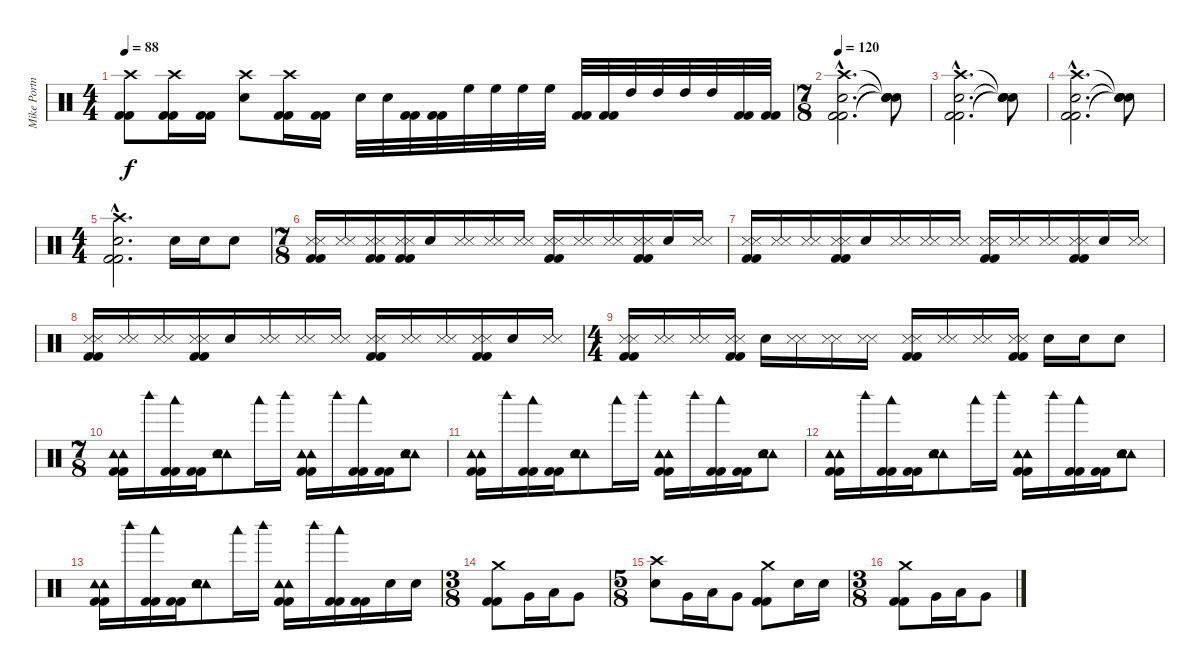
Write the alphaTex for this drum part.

\track ("Mike Portnoy" "Mike Portn") {instrument percussion}
\staff {score}
\articulation defaults
\ts (4 4)
\tempo 88
\clef neutral
\ks c
("Crash high (hit)" "Kick (hit) 2" "Kick (hit) 2").8{dy f} ("Crash high (hit)" "Kick (hit) 2" "Kick (hit) 2").16 ("Kick (hit) 2" "Kick (hit) 2").16 ("Crash high (hit)" "Snare (hit) 2").8 ("Crash high (hit)" "Kick (hit) 2" "Kick (hit) 2").16 ("Kick (hit) 2" "Kick (hit) 2").16 "Snare (hit) 2".32 "Snare (hit) 2".32 ("Kick (hit) 2" "Kick (hit) 2").32 ("Kick (hit) 2" "Kick (hit) 2").32 "High Floor Tom (hit)".32 "High Floor Tom (hit)".32 "High Floor Tom (hit)".32 "High Floor Tom (hit)".32 ("Kick (hit) 2" "Kick (hit) 2").32 ("Kick (hit) 2" "Kick (hit) 2").32 "High Tom (hit)".32 "High Tom (hit)".32 "High Tom (hit)".32 "High Tom (hit)".32 ("Kick (hit) 2" "Kick (hit) 2").32 ("Kick (hit) 2" "Kick (hit) 2").32 |
\ts (7 8)
\tempo 120
("Crash high (hit)"{hac} "Snare (hit) 2"{hac} "Kick (hit) 2"{hac} "Kick (hit) 2"{hac}).2{d} ("Snare (hit)"{t} "Snare (hit)"{t} "Snare (hit)"{t} "Snare (hit)"{t}).8 |
("Crash high (hit)"{hac} "Snare (hit) 2"{hac} "Kick (hit) 2"{hac} "Kick (hit) 2"{hac}).2{d} ("Snare (hit)"{t} "Snare (hit)"{t} "Snare (hit)"{t} "Snare (hit)"{t}).8 |
("Crash high (hit)"{hac} "Snare (hit) 2"{hac} "Kick (hit) 2"{hac} "Kick (hit) 2"{hac}).2{d} ("Snare (hit)"{t} "Snare (hit)"{t} "Snare (hit)"{t} "Snare (hit)"{t}).8 |
\ts (4 4)
("Crash high (hit)"{hac} "Snare (hit) 2"{hac} "Kick (hit) 2"{hac} "Kick (hit) 2"{hac}).2{d} "Snare (hit) 2".16 "Snare (hit) 2".16 "Snare (hit) 2".8 |
\ts (7 8)
("Snare (side stick) 3" "Snare (side stick) 3" "Kick (hit) 2" "Kick (hit) 2").16 ("Snare (side stick) 3" "Snare (side stick) 3").16 ("Snare (side stick) 3" "Snare (side stick) 3" "Kick (hit) 2" "Kick (hit) 2").16 ("Snare (side stick) 3" "Snare (side stick) 3" "Kick (hit) 2" "Kick (hit) 2").16 "Snare (hit) 2".16 ("Snare (side stick) 3" "Snare (side stick) 3").16 ("Snare (side stick) 3" "Snare (side stick) 3").16 ("Snare (side stick) 3" "Snare (side stick) 3").16 ("Snare (side stick) 3" "Snare (side stick) 3" "Kick (hit) 2" "Kick (hit) 2").16 ("Snare (side stick) 3" "Snare (side stick) 3").16 ("Snare (side stick) 3" "Snare (side stick) 3").16 ("Snare (side stick) 3" "Snare (side stick) 3" "Kick (hit) 2" "Kick (hit) 2").16 "Snare (hit) 2".16 ("Snare (side stick) 3" "Snare (side stick) 3").16 |
("Snare (side stick) 3" "Snare (side stick) 3" "Kick (hit) 2" "Kick (hit) 2").16 ("Snare (side stick) 3" "Snare (side stick) 3").16 ("Snare (side stick) 3" "Snare (side stick) 3").16 ("Snare (side stick) 3" "Snare (side stick) 3" "Kick (hit) 2" "Kick (hit) 2").16 "Snare (hit) 2".16 ("Snare (side stick) 3" "Snare (side stick) 3").16 ("Snare (side stick) 3" "Snare (side stick) 3").16 ("Snare (side stick) 3" "Snare (side stick) 3").16 ("Snare (side stick) 3" "Snare (side stick) 3" "Kick (hit) 2" "Kick (hit) 2").16 ("Snare (side stick) 3" "Snare (side stick) 3").16 ("Snare (side stick) 3" "Snare (side stick) 3").16 ("Snare (side stick) 3" "Snare (side stick) 3" "Kick (hit) 2" "Kick (hit) 2").16 "Snare (hit) 2".16 ("Snare (side stick) 3" "Snare (side stick) 3").16 |
("Snare (side stick) 3" "Snare (side stick) 3" "Kick (hit) 2" "Kick (hit) 2").16 ("Snare (side stick) 3" "Snare (side stick) 3").16 ("Snare (side stick) 3" "Snare (side stick) 3").16 ("Snare (side stick) 3" "Snare (side stick) 3" "Kick (hit) 2" "Kick (hit) 2").16 "Snare (hit) 2".16 ("Snare (side stick) 3" "Snare (side stick) 3").16 ("Snare (side stick) 3" "Snare (side stick) 3").16 ("Snare (side stick) 3" "Snare (side stick) 3").16 ("Snare (side stick) 3" "Snare (side stick) 3" "Kick (hit) 2" "Kick (hit) 2").16 ("Snare (side stick) 3" "Snare (side stick) 3").16 ("Snare (side stick) 3" "Snare (side stick) 3").16 ("Snare (side stick) 3" "Snare (side stick) 3" "Kick (hit) 2" "Kick (hit) 2").16 "Snare (hit) 2".16 ("Snare (side stick) 3" "Snare (side stick) 3").16 |
\ts (4 4)
("Snare (side stick) 3" "Snare (side stick) 3" "Kick (hit) 2" "Kick (hit) 2").16 ("Snare (side stick) 3" "Snare (side stick) 3").16 ("Snare (side stick) 3" "Snare (side stick) 3").16 ("Snare (side stick) 3" "Snare (side stick) 3" "Kick (hit) 2" "Kick (hit) 2").16 "Snare (hit) 2".16 ("Snare (side stick) 3" "Snare (side stick) 3").16 ("Snare (side stick) 3" "Snare (side stick) 3").16 ("Snare (side stick) 3" "Snare (side stick) 3").16 ("Snare (side stick) 3" "Snare (side stick) 3" "Kick (hit) 2" "Kick (hit) 2").16 ("Snare (side stick) 3" "Snare (side stick) 3").16 ("Snare (side stick) 3" "Snare (side stick) 3").16 ("Snare (side stick) 3" "Snare (side stick) 3" "Kick (hit) 2" "Kick (hit) 2").16 "Snare (hit) 2".16 "Snare (hit) 2".16 "Snare (hit) 2".8 |
\ts (7 8)
("Tambourine (hit)" "Tambourine (hit)" "Kick (hit) 2" "Kick (hit) 2").16 "Woodblock high (hit)".16 ("Woodblock low (hit)" "Kick (hit) 2" "Kick (hit) 2").16 ("Kick (hit) 2" "Kick (hit) 2").16 ("Tambourine (hit)" "Tambourine (hit)" "Snare (hit) 2").8 "Woodblock low (hit)".16 "Woodblock high (hit)".16 ("Tambourine (hit)" "Tambourine (hit)" "Kick (hit) 2" "Kick (hit) 2").16 "Woodblock high (hit)".16 ("Woodblock low (hit)" "Kick (hit) 2" "Kick (hit) 2").16 ("Kick (hit) 2" "Kick (hit) 2").16 ("Tambourine (hit)" "Tambourine (hit)" "Snare (hit) 2").8 |
("Tambourine (hit)" "Tambourine (hit)" "Kick (hit) 2" "Kick (hit) 2").16 "Woodblock high (hit)".16 ("Woodblock low (hit)" "Kick (hit) 2" "Kick (hit) 2").16 ("Kick (hit) 2" "Kick (hit) 2").16 ("Tambourine (hit)" "Tambourine (hit)" "Snare (hit) 2").8 "Woodblock low (hit)".16 "Woodblock high (hit)".16 ("Tambourine (hit)" "Tambourine (hit)" "Kick (hit) 2" "Kick (hit) 2").16 "Woodblock high (hit)".16 ("Woodblock low (hit)" "Kick (hit) 2" "Kick (hit) 2").16 ("Kick (hit) 2" "Kick (hit) 2").16 ("Tambourine (hit)" "Tambourine (hit)" "Snare (hit) 2").8 |
("Tambourine (hit)" "Tambourine (hit)" "Kick (hit) 2" "Kick (hit) 2").16 "Woodblock high (hit)".16 ("Woodblock low (hit)" "Kick (hit) 2" "Kick (hit) 2").16 ("Kick (hit) 2" "Kick (hit) 2").16 ("Tambourine (hit)" "Tambourine (hit)" "Snare (hit) 2").8 "Woodblock low (hit)".16 "Woodblock high (hit)".16 ("Tambourine (hit)" "Tambourine (hit)" "Kick (hit) 2" "Kick (hit) 2").16 "Woodblock high (hit)".16 ("Woodblock low (hit)" "Kick (hit) 2" "Kick (hit) 2").16 ("Kick (hit) 2" "Kick (hit) 2").16 ("Tambourine (hit)" "Tambourine (hit)" "Snare (hit) 2").8 |
("Tambourine (hit)" "Tambourine (hit)" "Kick (hit) 2" "Kick (hit) 2").16 "Woodblock high (hit)".16 ("Woodblock low (hit)" "Kick (hit) 2" "Kick (hit) 2").16 ("Kick (hit) 2" "Kick (hit) 2").16 ("Tambourine (hit)" "Tambourine (hit)" "Snare (hit) 2").8 "Woodblock low (hit)".16 "Woodblock high (hit)".16 ("Tambourine (hit)" "Tambourine (hit)" "Kick (hit) 2" "Kick (hit) 2").16 "Woodblock high (hit)".16 ("Woodblock low (hit)" "Kick (hit) 2" "Kick (hit) 2").16 ("Kick (hit) 2" "Kick (hit) 2").16 "Snare (hit) 2".16 "Snare (hit) 2".16 |
\ts (3 8)
("Crash medium (hit)" "Kick (hit) 2" "Kick (hit) 2").8 "Very Low Tom (hit)".16 "Low Tom (hit)".16 "Very Low Tom (hit)".8 |
\ts (5 8)
("Crash high (hit)" "Snare (hit) 2").8 "Very Low Tom (hit)".16 "Low Tom (hit)".16 "Very Low Tom (hit)".8 ("Crash medium (hit)" "Kick (hit) 2" "Kick (hit) 2").8 "Snare (hit) 2".16 "Snare (hit) 2".16 |
\ts (3 8)
("Crash medium (hit)" "Kick (hit) 2" "Kick (hit) 2").8 "Very Low Tom (hit)".16 "Low Tom (hit)".16 "Very Low Tom (hit)".8
